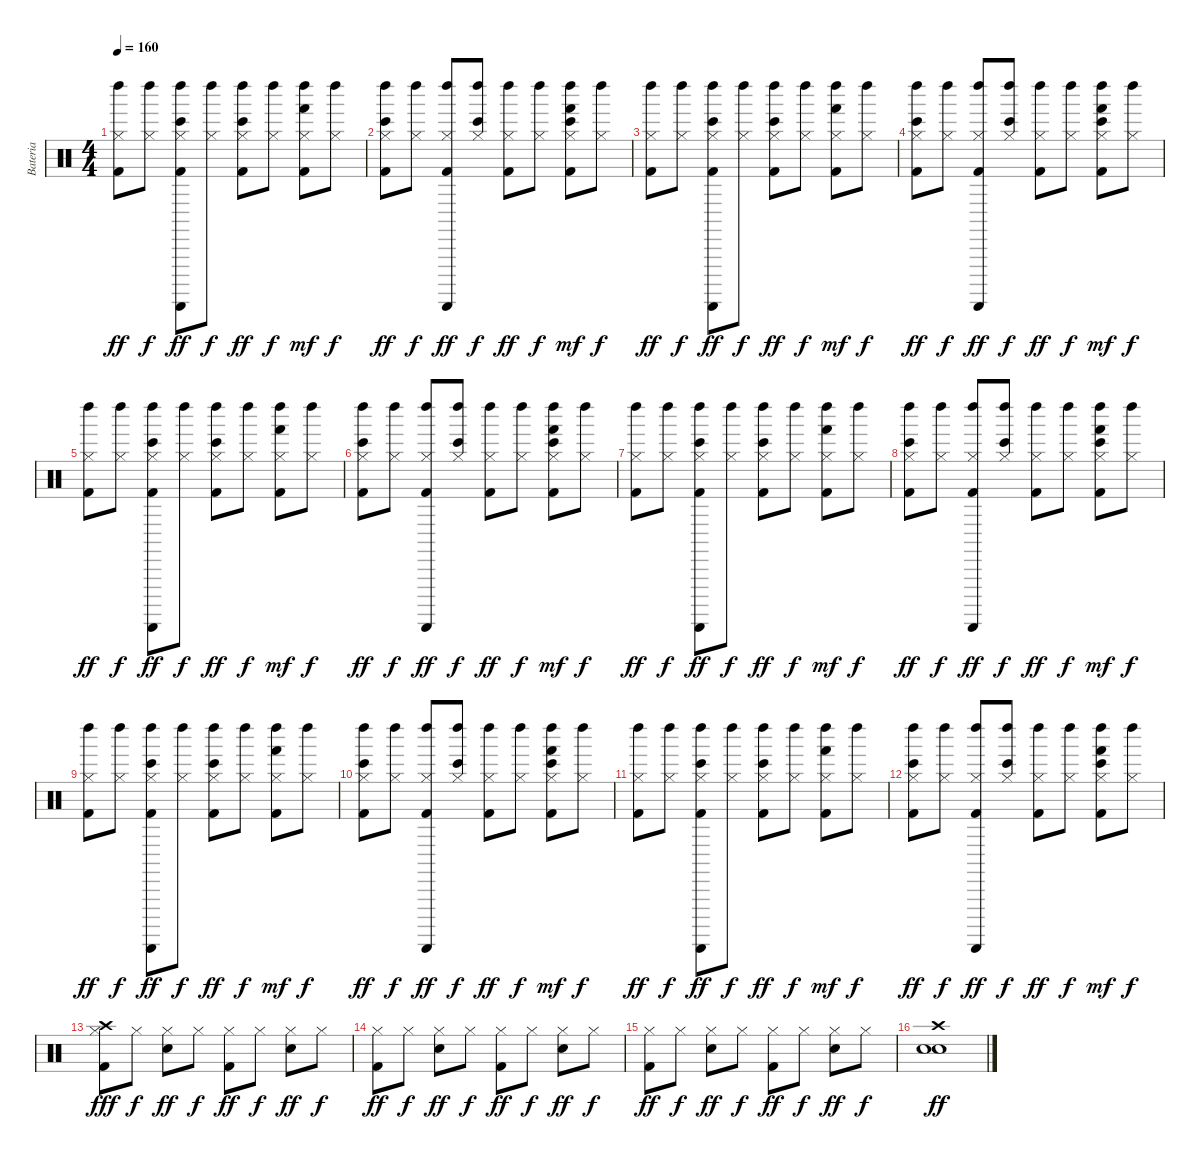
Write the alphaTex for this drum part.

\track ("Bateria" "Bateria") {instrument percussion}
\staff {score}
\articulation defaults
\ts (4 4)
\tempo 160
\clef neutral
\ks c
("Left Maraca (hit)" "Kick (hit) 2" "Hi-Hat (closed)").8{dy ff} ("Left Maraca (hit)" "Hi-Hat (closed)").8{dy f} ("Left Maraca (hit)" "Guiro (scrap-return)" "Hi-Hat (closed)" "Kick (hit) 2" "Bongo High (hit)").8{dy ff} ("Left Maraca (hit)" "Hi-Hat (closed)").8{dy f} ("Left Maraca (hit)" "Hi-Hat (closed)" "Kick (hit) 2" "Bongo High (hit)").8{dy ff} ("Left Maraca (hit)" "Hi-Hat (closed)").8{dy f} ("Left Maraca (hit)" "Hi-Hat (closed)" "Kick (hit) 2" "Hand (hit)").8{dy mf} ("Left Maraca (hit)" "Hi-Hat (closed)").8{dy f} |
("Left Maraca (hit)" "Hi-Hat (closed)" "Kick (hit) 2" "Bongo High (hit)").8{dy ff} ("Left Maraca (hit)" "Hi-Hat (closed)").8{dy f} ("Left Maraca (hit)" "Guiro (scrap-return)" "Kick (hit) 2" "Hi-Hat (closed)").8{dy ff} ("Left Maraca (hit)" "Hi-Hat (closed)" "Bongo High (hit)").8{dy f} ("Left Maraca (hit)" "Kick (hit) 2" "Hi-Hat (closed)").8{dy ff} ("Left Maraca (hit)" "Hi-Hat (closed)").8{dy f} ("Left Maraca (hit)" "Bongo High (hit)" "Hi-Hat (closed)" "Kick (hit) 2" "Hand (hit)").8{dy mf} ("Left Maraca (hit)" "Hi-Hat (closed)").8{dy f} |
("Left Maraca (hit)" "Kick (hit) 2" "Hi-Hat (closed)").8{dy ff} ("Left Maraca (hit)" "Hi-Hat (closed)").8{dy f} ("Left Maraca (hit)" "Guiro (scrap-return)" "Hi-Hat (closed)" "Kick (hit) 2" "Bongo High (hit)").8{dy ff} ("Left Maraca (hit)" "Hi-Hat (closed)").8{dy f} ("Left Maraca (hit)" "Hi-Hat (closed)" "Kick (hit) 2" "Bongo High (hit)").8{dy ff} ("Left Maraca (hit)" "Hi-Hat (closed)").8{dy f} ("Left Maraca (hit)" "Hi-Hat (closed)" "Kick (hit) 2" "Hand (hit)").8{dy mf} ("Left Maraca (hit)" "Hi-Hat (closed)").8{dy f} |
("Left Maraca (hit)" "Hi-Hat (closed)" "Kick (hit) 2" "Bongo High (hit)").8{dy ff} ("Left Maraca (hit)" "Hi-Hat (closed)").8{dy f} ("Left Maraca (hit)" "Guiro (scrap-return)" "Kick (hit) 2" "Hi-Hat (closed)").8{dy ff} ("Left Maraca (hit)" "Hi-Hat (closed)" "Bongo High (hit)").8{dy f} ("Left Maraca (hit)" "Kick (hit) 2" "Hi-Hat (closed)").8{dy ff} ("Left Maraca (hit)" "Hi-Hat (closed)").8{dy f} ("Left Maraca (hit)" "Bongo High (hit)" "Hi-Hat (closed)" "Kick (hit) 2" "Hand (hit)").8{dy mf} ("Left Maraca (hit)" "Hi-Hat (closed)").8{dy f} |
("Left Maraca (hit)" "Kick (hit) 2" "Hi-Hat (closed)").8{dy ff} ("Left Maraca (hit)" "Hi-Hat (closed)").8{dy f} ("Left Maraca (hit)" "Guiro (scrap-return)" "Hi-Hat (closed)" "Kick (hit) 2" "Bongo High (hit)").8{dy ff} ("Left Maraca (hit)" "Hi-Hat (closed)").8{dy f} ("Left Maraca (hit)" "Hi-Hat (closed)" "Kick (hit) 2" "Bongo High (hit)").8{dy ff} ("Left Maraca (hit)" "Hi-Hat (closed)").8{dy f} ("Left Maraca (hit)" "Hi-Hat (closed)" "Kick (hit) 2" "Hand (hit)").8{dy mf} ("Left Maraca (hit)" "Hi-Hat (closed)").8{dy f} |
("Left Maraca (hit)" "Hi-Hat (closed)" "Kick (hit) 2" "Bongo High (hit)").8{dy ff} ("Left Maraca (hit)" "Hi-Hat (closed)").8{dy f} ("Left Maraca (hit)" "Guiro (scrap-return)" "Kick (hit) 2" "Hi-Hat (closed)").8{dy ff} ("Left Maraca (hit)" "Hi-Hat (closed)" "Bongo High (hit)").8{dy f} ("Left Maraca (hit)" "Kick (hit) 2" "Hi-Hat (closed)").8{dy ff} ("Left Maraca (hit)" "Hi-Hat (closed)").8{dy f} ("Left Maraca (hit)" "Bongo High (hit)" "Hi-Hat (closed)" "Kick (hit) 2" "Hand (hit)").8{dy mf} ("Left Maraca (hit)" "Hi-Hat (closed)").8{dy f} |
("Left Maraca (hit)" "Kick (hit) 2" "Hi-Hat (closed)").8{dy ff} ("Left Maraca (hit)" "Hi-Hat (closed)").8{dy f} ("Left Maraca (hit)" "Guiro (scrap-return)" "Hi-Hat (closed)" "Kick (hit) 2" "Bongo High (hit)").8{dy ff} ("Left Maraca (hit)" "Hi-Hat (closed)").8{dy f} ("Left Maraca (hit)" "Hi-Hat (closed)" "Kick (hit) 2" "Bongo High (hit)").8{dy ff} ("Left Maraca (hit)" "Hi-Hat (closed)").8{dy f} ("Left Maraca (hit)" "Hi-Hat (closed)" "Kick (hit) 2" "Hand (hit)").8{dy mf} ("Left Maraca (hit)" "Hi-Hat (closed)").8{dy f} |
("Left Maraca (hit)" "Hi-Hat (closed)" "Kick (hit) 2" "Bongo High (hit)").8{dy ff} ("Left Maraca (hit)" "Hi-Hat (closed)").8{dy f} ("Left Maraca (hit)" "Guiro (scrap-return)" "Kick (hit) 2" "Hi-Hat (closed)").8{dy ff} ("Left Maraca (hit)" "Hi-Hat (closed)" "Bongo High (hit)").8{dy f} ("Left Maraca (hit)" "Kick (hit) 2" "Hi-Hat (closed)").8{dy ff} ("Left Maraca (hit)" "Hi-Hat (closed)").8{dy f} ("Left Maraca (hit)" "Bongo High (hit)" "Hi-Hat (closed)" "Kick (hit) 2" "Hand (hit)").8{dy mf} ("Left Maraca (hit)" "Hi-Hat (closed)").8{dy f} |
("Left Maraca (hit)" "Kick (hit) 2" "Hi-Hat (closed)").8{dy ff} ("Left Maraca (hit)" "Hi-Hat (closed)").8{dy f} ("Left Maraca (hit)" "Guiro (scrap-return)" "Hi-Hat (closed)" "Kick (hit) 2" "Bongo High (hit)").8{dy ff} ("Left Maraca (hit)" "Hi-Hat (closed)").8{dy f} ("Left Maraca (hit)" "Hi-Hat (closed)" "Kick (hit) 2" "Bongo High (hit)").8{dy ff} ("Left Maraca (hit)" "Hi-Hat (closed)").8{dy f} ("Left Maraca (hit)" "Hi-Hat (closed)" "Kick (hit) 2" "Hand (hit)").8{dy mf} ("Left Maraca (hit)" "Hi-Hat (closed)").8{dy f} |
("Left Maraca (hit)" "Hi-Hat (closed)" "Kick (hit) 2" "Bongo High (hit)").8{dy ff} ("Left Maraca (hit)" "Hi-Hat (closed)").8{dy f} ("Left Maraca (hit)" "Guiro (scrap-return)" "Kick (hit) 2" "Hi-Hat (closed)").8{dy ff} ("Left Maraca (hit)" "Hi-Hat (closed)" "Bongo High (hit)").8{dy f} ("Left Maraca (hit)" "Kick (hit) 2" "Hi-Hat (closed)").8{dy ff} ("Left Maraca (hit)" "Hi-Hat (closed)").8{dy f} ("Left Maraca (hit)" "Bongo High (hit)" "Hi-Hat (closed)" "Kick (hit) 2" "Hand (hit)").8{dy mf} ("Left Maraca (hit)" "Hi-Hat (closed)").8{dy f} |
("Left Maraca (hit)" "Kick (hit) 2" "Hi-Hat (closed)").8{dy ff} ("Left Maraca (hit)" "Hi-Hat (closed)").8{dy f} ("Left Maraca (hit)" "Guiro (scrap-return)" "Hi-Hat (closed)" "Kick (hit) 2" "Bongo High (hit)").8{dy ff} ("Left Maraca (hit)" "Hi-Hat (closed)").8{dy f} ("Left Maraca (hit)" "Hi-Hat (closed)" "Kick (hit) 2" "Bongo High (hit)").8{dy ff} ("Left Maraca (hit)" "Hi-Hat (closed)").8{dy f} ("Left Maraca (hit)" "Hi-Hat (closed)" "Kick (hit) 2" "Hand (hit)").8{dy mf} ("Left Maraca (hit)" "Hi-Hat (closed)").8{dy f} |
("Left Maraca (hit)" "Hi-Hat (closed)" "Kick (hit) 2" "Bongo High (hit)").8{dy ff} ("Left Maraca (hit)" "Hi-Hat (closed)").8{dy f} ("Left Maraca (hit)" "Guiro (scrap-return)" "Kick (hit) 2" "Hi-Hat (closed)").8{dy ff} ("Left Maraca (hit)" "Hi-Hat (closed)" "Bongo High (hit)").8{dy f} ("Left Maraca (hit)" "Kick (hit) 2" "Hi-Hat (closed)").8{dy ff} ("Left Maraca (hit)" "Hi-Hat (closed)").8{dy f} ("Left Maraca (hit)" "Bongo High (hit)" "Hi-Hat (closed)" "Kick (hit) 2" "Hand (hit)").8{dy mf} ("Left Maraca (hit)" "Hi-Hat (closed)").8{dy f} |
("Kick (hit) 2" "Crash high (hit)" "Hi-Hat (closed)").8{dy fff} "Hi-Hat (closed)".8{dy f} ("Hi-Hat (closed)" "Snare (hit) 2").8{dy ff} "Hi-Hat (closed)".8{dy f} ("Kick (hit) 2" "Hi-Hat (closed)").8{dy ff} "Hi-Hat (closed)".8{dy f} ("Hi-Hat (closed)" "Snare (hit) 2").8{dy ff} "Hi-Hat (closed)".8{dy f} |
("Kick (hit) 2" "Hi-Hat (closed)").8{dy ff} "Hi-Hat (closed)".8{dy f} ("Hi-Hat (closed)" "Snare (hit) 2").8{dy ff} "Hi-Hat (closed)".8{dy f} ("Kick (hit) 2" "Hi-Hat (closed)").8{dy ff} "Hi-Hat (closed)".8{dy f} ("Hi-Hat (closed)" "Snare (hit) 2").8{dy ff} "Hi-Hat (closed)".8{dy f} |
("Kick (hit) 2" "Hi-Hat (closed)").8{dy ff} "Hi-Hat (closed)".8{dy f} ("Hi-Hat (closed)" "Snare (hit) 2").8{dy ff} "Hi-Hat (closed)".8{dy f} ("Kick (hit) 2" "Hi-Hat (closed)").8{dy ff} "Hi-Hat (closed)".8{dy f} ("Hi-Hat (closed)" "Snare (hit) 2").8{dy ff} "Hi-Hat (closed)".8{dy f} |
("Snare (hit) 2" "Crash high (hit)" "Snare (hit) 2").1{dy ff}
